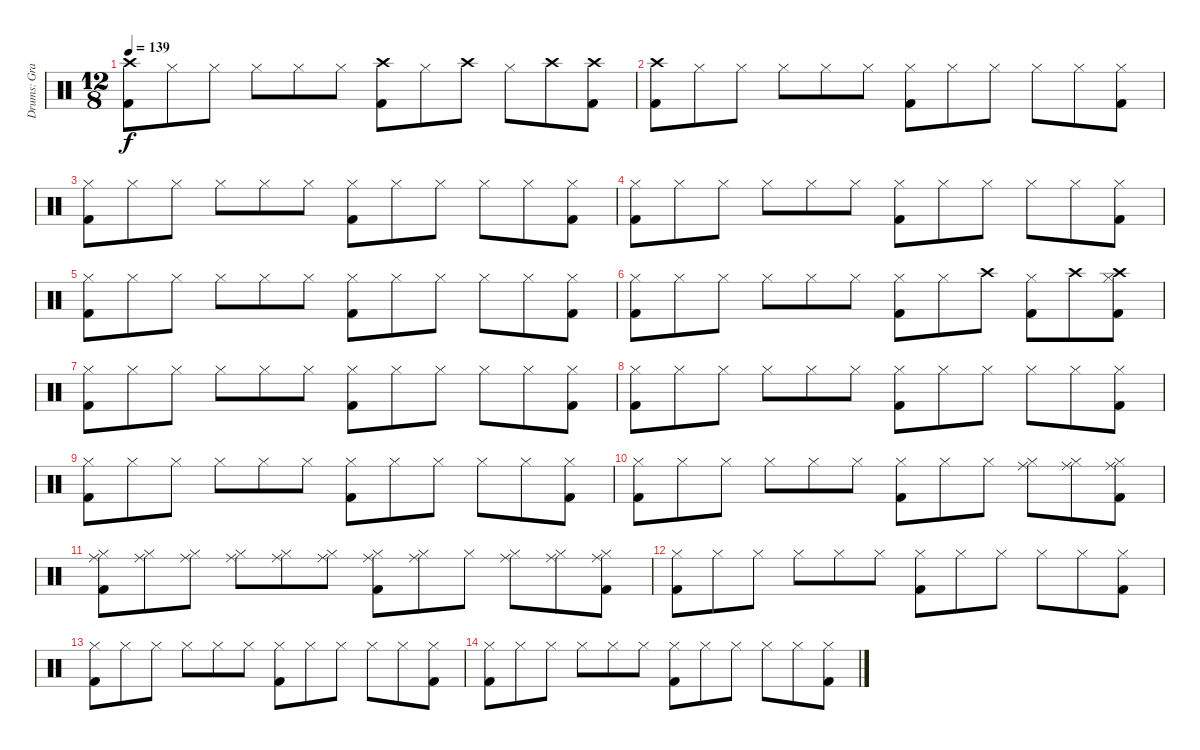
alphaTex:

\track ("Drums: Graeme Edge" "Drums: Gra") {instrument percussion}
\staff {score}
\articulation defaults
\ts (12 8)
\tempo 139
\clef neutral
\ks c
("Crash high (hit)" "Kick (hit) 2").8{dy f} "Hi-Hat (closed)".8 "Hi-Hat (closed)".8 "Hi-Hat (closed)".8 "Hi-Hat (closed)".8 "Hi-Hat (closed)".8 ("Crash high (hit)" "Kick (hit) 2").8 "Hi-Hat (closed)".8 "Crash high (hit)".8 "Hi-Hat (closed)".8 "Crash high (hit)".8 ("Crash high (hit)" "Kick (hit) 2").8 |
("Crash high (hit)" "Kick (hit) 2").8 "Hi-Hat (closed)".8 "Hi-Hat (closed)".8 "Hi-Hat (closed)".8 "Hi-Hat (closed)".8 "Hi-Hat (closed)".8 ("Hi-Hat (closed)" "Kick (hit) 2").8 "Hi-Hat (closed)".8 "Hi-Hat (closed)".8 "Hi-Hat (closed)".8 "Hi-Hat (closed)".8 ("Hi-Hat (closed)" "Kick (hit) 2").8 |
("Hi-Hat (closed)" "Kick (hit) 2").8 "Hi-Hat (closed)".8 "Hi-Hat (closed)".8 "Hi-Hat (closed)".8 "Hi-Hat (closed)".8 "Hi-Hat (closed)".8 ("Hi-Hat (closed)" "Kick (hit) 2").8 "Hi-Hat (closed)".8 "Hi-Hat (closed)".8 "Hi-Hat (closed)".8 "Hi-Hat (closed)".8 ("Hi-Hat (closed)" "Kick (hit) 2").8 |
("Hi-Hat (closed)" "Kick (hit) 2").8 "Hi-Hat (closed)".8 "Hi-Hat (closed)".8 "Hi-Hat (closed)".8 "Hi-Hat (closed)".8 "Hi-Hat (closed)".8 ("Hi-Hat (closed)" "Kick (hit) 2").8 "Hi-Hat (closed)".8 "Hi-Hat (closed)".8 "Hi-Hat (closed)".8 "Hi-Hat (closed)".8 ("Hi-Hat (closed)" "Kick (hit) 2").8 |
("Hi-Hat (closed)" "Kick (hit) 2").8 "Hi-Hat (closed)".8 "Hi-Hat (closed)".8 "Hi-Hat (closed)".8 "Hi-Hat (closed)".8 "Hi-Hat (closed)".8 ("Hi-Hat (closed)" "Kick (hit) 2").8 "Hi-Hat (closed)".8 "Hi-Hat (closed)".8 "Hi-Hat (closed)".8 "Hi-Hat (closed)".8 ("Hi-Hat (closed)" "Kick (hit) 2").8 |
("Hi-Hat (closed)" "Kick (hit) 2").8 "Hi-Hat (closed)".8 "Hi-Hat (closed)".8 "Hi-Hat (closed)".8 "Hi-Hat (closed)".8 "Hi-Hat (closed)".8 ("Hi-Hat (closed)" "Kick (hit) 2").8 "Hi-Hat (closed)".8 "Crash high (hit)".8 ("Hi-Hat (closed)" "Kick (hit) 2").8 "Crash high (hit)".8 ("Crash high (hit)" "Hi-Hat (closed)" "Kick (hit) 2").8 |
("Hi-Hat (closed)" "Kick (hit) 2").8 "Hi-Hat (closed)".8 "Hi-Hat (closed)".8 "Hi-Hat (closed)".8 "Hi-Hat (closed)".8 "Hi-Hat (closed)".8 ("Hi-Hat (closed)" "Kick (hit) 2").8 "Hi-Hat (closed)".8 "Hi-Hat (closed)".8 "Hi-Hat (closed)".8 "Hi-Hat (closed)".8 ("Hi-Hat (closed)" "Kick (hit) 2").8 |
("Hi-Hat (closed)" "Kick (hit) 2").8 "Hi-Hat (closed)".8 "Hi-Hat (closed)".8 "Hi-Hat (closed)".8 "Hi-Hat (closed)".8 "Hi-Hat (closed)".8 ("Hi-Hat (closed)" "Kick (hit) 2").8 "Hi-Hat (closed)".8 "Hi-Hat (closed)".8 "Hi-Hat (closed)".8 "Hi-Hat (closed)".8 ("Hi-Hat (closed)" "Kick (hit) 2").8 |
("Hi-Hat (closed)" "Kick (hit) 2").8 "Hi-Hat (closed)".8 "Hi-Hat (closed)".8 "Hi-Hat (closed)".8 "Hi-Hat (closed)".8 "Hi-Hat (closed)".8 ("Hi-Hat (closed)" "Kick (hit) 2").8 "Hi-Hat (closed)".8 "Hi-Hat (closed)".8 "Hi-Hat (closed)".8 "Hi-Hat (closed)".8 ("Hi-Hat (closed)" "Kick (hit) 2").8 |
("Hi-Hat (closed)" "Kick (hit) 2").8 "Hi-Hat (closed)".8 "Hi-Hat (closed)".8 "Hi-Hat (closed)".8 "Hi-Hat (closed)".8 "Hi-Hat (closed)".8 ("Hi-Hat (closed)" "Kick (hit) 2").8 "Hi-Hat (closed)".8 "Hi-Hat (closed)".8 ("Ride (middle)" "Hi-Hat (closed)").8 ("Ride (middle)" "Hi-Hat (closed)").8 ("Ride (middle)" "Hi-Hat (closed)" "Kick (hit) 2").8 |
("Ride (middle)" "Hi-Hat (closed)" "Kick (hit) 2").8 ("Ride (middle)" "Hi-Hat (closed)").8 ("Ride (middle)" "Hi-Hat (closed)").8 ("Ride (middle)" "Hi-Hat (closed)").8 ("Ride (middle)" "Hi-Hat (closed)").8 ("Ride (middle)" "Hi-Hat (closed)").8 ("Ride (middle)" "Hi-Hat (closed)" "Kick (hit) 2").8 ("Ride (middle)" "Hi-Hat (closed)").8 "Hi-Hat (closed)".8{volume 9} ("Ride (middle)" "Hi-Hat (closed)").8{volume 9} ("Ride (middle)" "Hi-Hat (closed)").8{volume 9} ("Ride (middle)" "Hi-Hat (closed)" "Kick (hit) 2").8{volume 9} |
("Kick (hit) 2" "Hi-Hat (closed)").8{volume 9} "Hi-Hat (closed)".8{volume 9} "Hi-Hat (closed)".8{volume 8} "Hi-Hat (closed)".8{volume 8} "Hi-Hat (closed)".8{volume 8} "Hi-Hat (closed)".8{volume 8} ("Hi-Hat (closed)" "Kick (hit) 2").8{volume 8} "Hi-Hat (closed)".8{volume 8} "Hi-Hat (closed)".8{volume 8} "Hi-Hat (closed)".8{volume 7} "Hi-Hat (closed)".8{volume 7} ("Hi-Hat (closed)" "Kick (hit) 2").8{volume 7} |
("Kick (hit) 2" "Hi-Hat (closed)").8{volume 7} "Hi-Hat (closed)".8{volume 7} "Hi-Hat (closed)".8{volume 7} "Hi-Hat (closed)".8{volume 6} "Hi-Hat (closed)".8{volume 6} "Hi-Hat (closed)".8{volume 6} ("Hi-Hat (closed)" "Kick (hit) 2").8{volume 6} "Hi-Hat (closed)".8{volume 6} "Hi-Hat (closed)".8{volume 6} "Hi-Hat (closed)".8{volume 6} "Hi-Hat (closed)".8{volume 5} ("Hi-Hat (closed)" "Kick (hit) 2").8{volume 5} |
("Kick (hit) 2" "Hi-Hat (closed)").8{volume 5} "Hi-Hat (closed)".8{volume 5} "Hi-Hat (closed)".8{volume 5} "Hi-Hat (closed)".8{volume 5} "Hi-Hat (closed)".8{volume 4} "Hi-Hat (closed)".8{volume 4} ("Kick (hit) 2" "Hi-Hat (closed)").8{volume 4} "Hi-Hat (closed)".8{volume 4} "Hi-Hat (closed)".8{volume 4} "Hi-Hat (closed)".8{volume 4} "Hi-Hat (closed)".8{volume 4} ("Kick (hit) 2" "Hi-Hat (closed)").8{volume 3}
